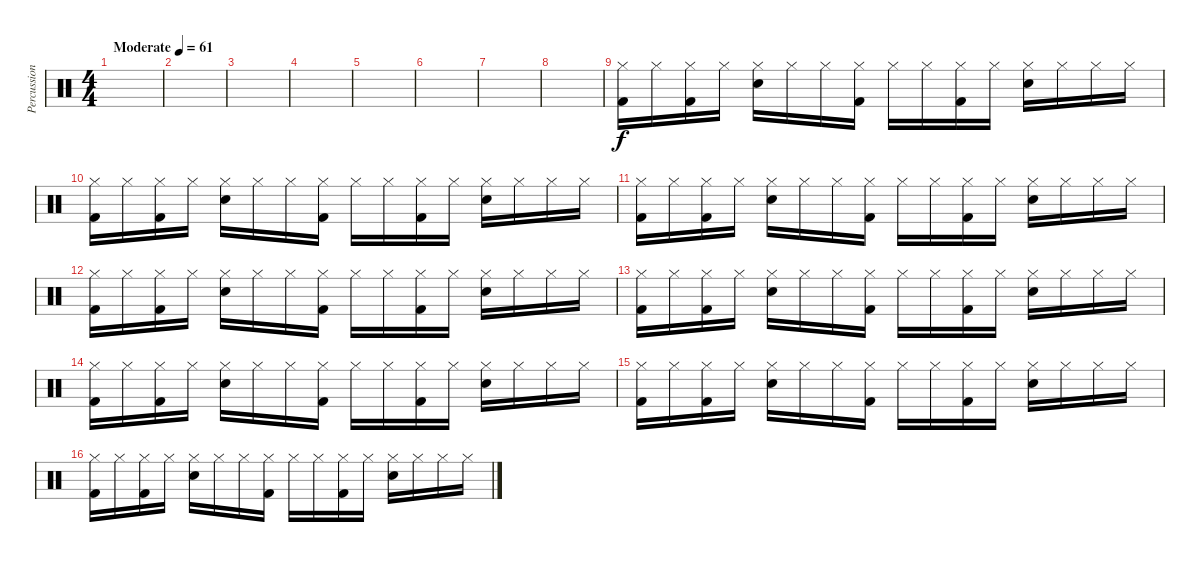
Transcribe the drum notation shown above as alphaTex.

\track ("Percussion" "Percussion") {instrument percussion}
\staff {score}
\articulation defaults
\ts (4 4)
\tempo (61 "Moderate")
\clef neutral
\ks c
|
|
|
|
|
|
|
|
("Kick (hit) 2" "Hi-Hat (closed)").16 "Hi-Hat (closed)".16 ("Kick (hit) 2" "Hi-Hat (closed)").16 "Hi-Hat (closed)".16 ("Electric Snare (hit)" "Hi-Hat (closed)").16 "Hi-Hat (closed)".16 "Hi-Hat (closed)".16 ("Kick (hit) 2" "Hi-Hat (closed)").16 "Hi-Hat (closed)".16 "Hi-Hat (closed)".16 ("Kick (hit) 2" "Hi-Hat (closed)").16 "Hi-Hat (closed)".16 ("Electric Snare (hit)" "Hi-Hat (closed)").16 "Hi-Hat (closed)".16 "Hi-Hat (closed)".16 "Hi-Hat (closed)".16 |
("Kick (hit) 2" "Hi-Hat (closed)").16 "Hi-Hat (closed)".16 ("Kick (hit) 2" "Hi-Hat (closed)").16 "Hi-Hat (closed)".16 ("Electric Snare (hit)" "Hi-Hat (closed)").16 "Hi-Hat (closed)".16 "Hi-Hat (closed)".16 ("Kick (hit) 2" "Hi-Hat (closed)").16 "Hi-Hat (closed)".16 "Hi-Hat (closed)".16 ("Kick (hit) 2" "Hi-Hat (closed)").16 "Hi-Hat (closed)".16 ("Electric Snare (hit)" "Hi-Hat (closed)").16 "Hi-Hat (closed)".16 "Hi-Hat (closed)".16 "Hi-Hat (closed)".16 |
("Kick (hit) 2" "Hi-Hat (closed)").16 "Hi-Hat (closed)".16 ("Kick (hit) 2" "Hi-Hat (closed)").16 "Hi-Hat (closed)".16 ("Electric Snare (hit)" "Hi-Hat (closed)").16 "Hi-Hat (closed)".16 "Hi-Hat (closed)".16 ("Kick (hit) 2" "Hi-Hat (closed)").16 "Hi-Hat (closed)".16 "Hi-Hat (closed)".16 ("Kick (hit) 2" "Hi-Hat (closed)").16 "Hi-Hat (closed)".16 ("Electric Snare (hit)" "Hi-Hat (closed)").16 "Hi-Hat (closed)".16 "Hi-Hat (closed)".16 "Hi-Hat (closed)".16 |
("Kick (hit) 2" "Hi-Hat (closed)").16 "Hi-Hat (closed)".16 ("Kick (hit) 2" "Hi-Hat (closed)").16 "Hi-Hat (closed)".16 ("Electric Snare (hit)" "Hi-Hat (closed)").16 "Hi-Hat (closed)".16 "Hi-Hat (closed)".16 ("Kick (hit) 2" "Hi-Hat (closed)").16 "Hi-Hat (closed)".16 "Hi-Hat (closed)".16 ("Kick (hit) 2" "Hi-Hat (closed)").16 "Hi-Hat (closed)".16 ("Electric Snare (hit)" "Hi-Hat (closed)").16 "Hi-Hat (closed)".16 "Hi-Hat (closed)".16 "Hi-Hat (closed)".16 |
("Kick (hit) 2" "Hi-Hat (closed)").16 "Hi-Hat (closed)".16 ("Kick (hit) 2" "Hi-Hat (closed)").16 "Hi-Hat (closed)".16 ("Electric Snare (hit)" "Hi-Hat (closed)").16 "Hi-Hat (closed)".16 "Hi-Hat (closed)".16 ("Kick (hit) 2" "Hi-Hat (closed)").16 "Hi-Hat (closed)".16 "Hi-Hat (closed)".16 ("Kick (hit) 2" "Hi-Hat (closed)").16 "Hi-Hat (closed)".16 ("Electric Snare (hit)" "Hi-Hat (closed)").16 "Hi-Hat (closed)".16 "Hi-Hat (closed)".16 "Hi-Hat (closed)".16 |
("Kick (hit) 2" "Hi-Hat (closed)").16 "Hi-Hat (closed)".16 ("Kick (hit) 2" "Hi-Hat (closed)").16 "Hi-Hat (closed)".16 ("Electric Snare (hit)" "Hi-Hat (closed)").16 "Hi-Hat (closed)".16 "Hi-Hat (closed)".16 ("Kick (hit) 2" "Hi-Hat (closed)").16 "Hi-Hat (closed)".16 "Hi-Hat (closed)".16 ("Kick (hit) 2" "Hi-Hat (closed)").16 "Hi-Hat (closed)".16 ("Electric Snare (hit)" "Hi-Hat (closed)").16 "Hi-Hat (closed)".16 "Hi-Hat (closed)".16 "Hi-Hat (closed)".16 |
("Kick (hit) 2" "Hi-Hat (closed)").16 "Hi-Hat (closed)".16 ("Kick (hit) 2" "Hi-Hat (closed)").16 "Hi-Hat (closed)".16 ("Electric Snare (hit)" "Hi-Hat (closed)").16 "Hi-Hat (closed)".16 "Hi-Hat (closed)".16 ("Kick (hit) 2" "Hi-Hat (closed)").16 "Hi-Hat (closed)".16 "Hi-Hat (closed)".16 ("Kick (hit) 2" "Hi-Hat (closed)").16 "Hi-Hat (closed)".16 ("Electric Snare (hit)" "Hi-Hat (closed)").16 "Hi-Hat (closed)".16 "Hi-Hat (closed)".16 "Hi-Hat (closed)".16 |
("Kick (hit) 2" "Hi-Hat (closed)").16 "Hi-Hat (closed)".16 ("Kick (hit) 2" "Hi-Hat (closed)").16 "Hi-Hat (closed)".16 ("Electric Snare (hit)" "Hi-Hat (closed)").16 "Hi-Hat (closed)".16 "Hi-Hat (closed)".16 ("Kick (hit) 2" "Hi-Hat (closed)").16 "Hi-Hat (closed)".16 "Hi-Hat (closed)".16 ("Kick (hit) 2" "Hi-Hat (closed)").16 "Hi-Hat (closed)".16 ("Electric Snare (hit)" "Hi-Hat (closed)").16 "Hi-Hat (closed)".16 "Hi-Hat (closed)".16 "Hi-Hat (closed)".16
